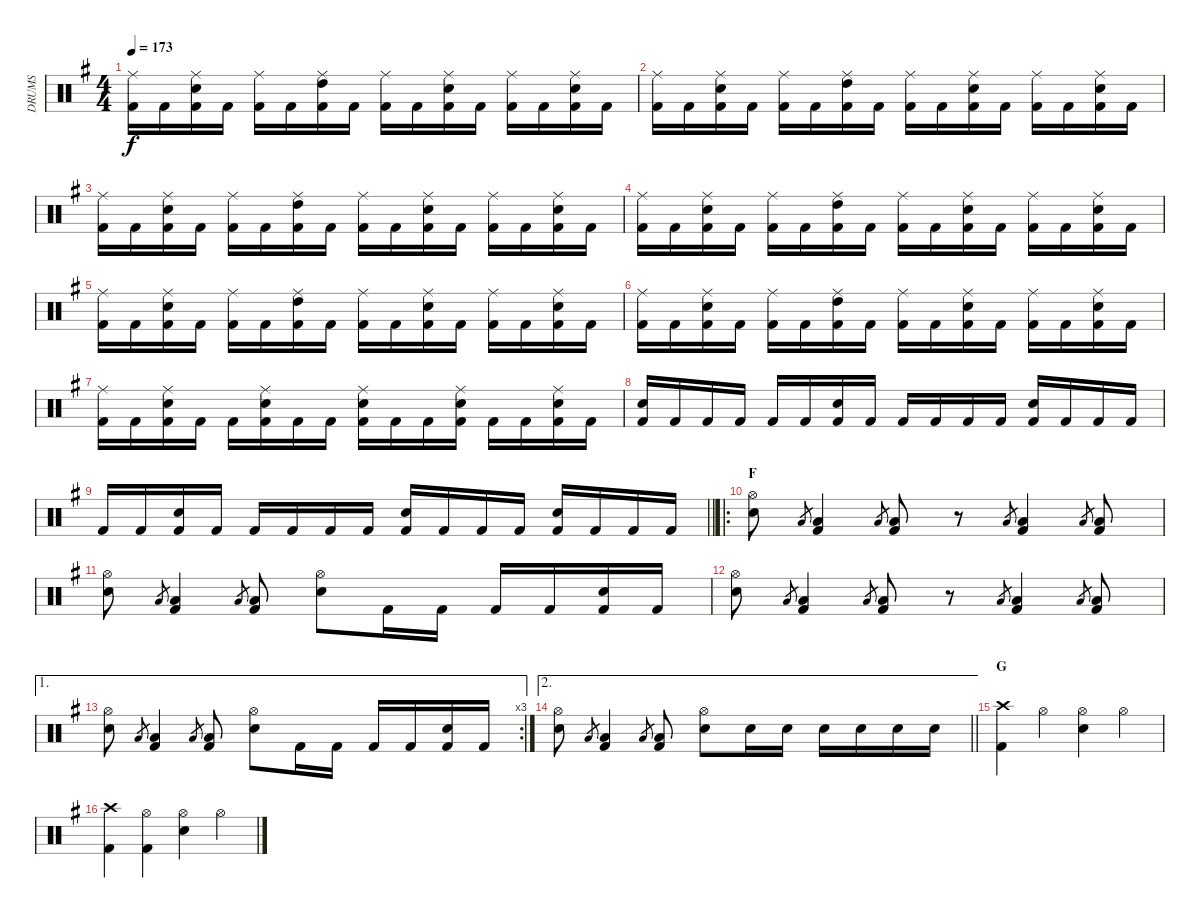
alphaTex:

\track ("DRUMS" "DRUMS") {instrument percussion}
\staff {score}
\articulation defaults
\ts (4 4)
\tempo 173
\clef neutral
\ks g
("Ride (middle)" "Kick (hit) 2").16{dy f} "Kick (hit) 2".16 ("Ride (middle)" "Kick (hit) 2" "Snare (hit) 2").16 "Kick (hit) 2".16 ("Ride (middle)" "Kick (hit) 2").16 "Kick (hit) 2".16 ("Ride (middle)" "Kick (hit) 2" "High Tom (hit)").16 "Kick (hit) 2".16 ("Ride (middle)" "Kick (hit) 2").16 "Kick (hit) 2".16 ("Ride (middle)" "Kick (hit) 2" "Snare (hit) 2").16 "Kick (hit) 2".16 ("Ride (middle)" "Kick (hit) 2").16 "Kick (hit) 2".16 ("Ride (middle)" "Kick (hit) 2" "Snare (hit) 2").16 "Kick (hit) 2".16 |
("Ride (middle)" "Kick (hit) 2").16 "Kick (hit) 2".16 ("Ride (middle)" "Kick (hit) 2" "Snare (hit) 2").16 "Kick (hit) 2".16 ("Ride (middle)" "Kick (hit) 2").16 "Kick (hit) 2".16 ("Ride (middle)" "Kick (hit) 2" "High Tom (hit)").16 "Kick (hit) 2".16 ("Ride (middle)" "Kick (hit) 2").16 "Kick (hit) 2".16 ("Ride (middle)" "Kick (hit) 2" "Snare (hit) 2").16 "Kick (hit) 2".16 ("Ride (middle)" "Kick (hit) 2").16 "Kick (hit) 2".16 ("Ride (middle)" "Kick (hit) 2" "Snare (hit) 2").16 "Kick (hit) 2".16 |
("Ride (middle)" "Kick (hit) 2").16 "Kick (hit) 2".16 ("Ride (middle)" "Kick (hit) 2" "Snare (hit) 2").16 "Kick (hit) 2".16 ("Ride (middle)" "Kick (hit) 2").16 "Kick (hit) 2".16 ("Ride (middle)" "Kick (hit) 2" "High Tom (hit)").16 "Kick (hit) 2".16 ("Ride (middle)" "Kick (hit) 2").16 "Kick (hit) 2".16 ("Ride (middle)" "Kick (hit) 2" "Snare (hit) 2").16 "Kick (hit) 2".16 ("Ride (middle)" "Kick (hit) 2").16 "Kick (hit) 2".16 ("Ride (middle)" "Kick (hit) 2" "Snare (hit) 2").16 "Kick (hit) 2".16 |
("Ride (middle)" "Kick (hit) 2").16 "Kick (hit) 2".16 ("Ride (middle)" "Kick (hit) 2" "Snare (hit) 2").16 "Kick (hit) 2".16 ("Ride (middle)" "Kick (hit) 2").16 "Kick (hit) 2".16 ("Ride (middle)" "Kick (hit) 2" "High Tom (hit)").16 "Kick (hit) 2".16 ("Ride (middle)" "Kick (hit) 2").16 "Kick (hit) 2".16 ("Ride (middle)" "Kick (hit) 2" "Snare (hit) 2").16 "Kick (hit) 2".16 ("Ride (middle)" "Kick (hit) 2").16 "Kick (hit) 2".16 ("Ride (middle)" "Kick (hit) 2" "Snare (hit) 2").16 "Kick (hit) 2".16 |
("Ride (middle)" "Kick (hit) 2").16 "Kick (hit) 2".16 ("Ride (middle)" "Kick (hit) 2" "Snare (hit) 2").16 "Kick (hit) 2".16 ("Ride (middle)" "Kick (hit) 2").16 "Kick (hit) 2".16 ("Ride (middle)" "Kick (hit) 2" "High Tom (hit)").16 "Kick (hit) 2".16 ("Ride (middle)" "Kick (hit) 2").16 "Kick (hit) 2".16 ("Ride (middle)" "Kick (hit) 2" "Snare (hit) 2").16 "Kick (hit) 2".16 ("Ride (middle)" "Kick (hit) 2").16 "Kick (hit) 2".16 ("Ride (middle)" "Kick (hit) 2" "Snare (hit) 2").16 "Kick (hit) 2".16 |
("Ride (middle)" "Kick (hit) 2").16 "Kick (hit) 2".16 ("Ride (middle)" "Kick (hit) 2" "Snare (hit) 2").16 "Kick (hit) 2".16 ("Ride (middle)" "Kick (hit) 2").16 "Kick (hit) 2".16 ("Ride (middle)" "Kick (hit) 2" "High Tom (hit)").16 "Kick (hit) 2".16 ("Ride (middle)" "Kick (hit) 2").16 "Kick (hit) 2".16 ("Ride (middle)" "Kick (hit) 2" "Snare (hit) 2").16 "Kick (hit) 2".16 ("Ride (middle)" "Kick (hit) 2").16 "Kick (hit) 2".16 ("Ride (middle)" "Kick (hit) 2" "Snare (hit) 2").16 "Kick (hit) 2".16 |
("Ride (middle)" "Kick (hit) 2").16 "Kick (hit) 2".16 ("Ride (middle)" "Kick (hit) 2" "Snare (hit) 2").16 "Kick (hit) 2".16 "Kick (hit) 2".16 ("Ride (middle)" "Kick (hit) 2" "Snare (hit) 2").16 "Kick (hit) 2".16 "Kick (hit) 2".16 ("Ride (middle)" "Kick (hit) 2" "Snare (hit) 2").16 "Kick (hit) 2".16 "Kick (hit) 2".16 ("Ride (middle)" "Kick (hit) 2" "Snare (hit) 2").16 "Kick (hit) 2".16 "Kick (hit) 2".16 ("Ride (middle)" "Kick (hit) 2" "Snare (hit) 2").16 "Kick (hit) 2".16 |
("Snare (hit) 2" "Kick (hit) 2").16 "Kick (hit) 2".16 "Kick (hit) 2".16 "Kick (hit) 2".16 "Kick (hit) 2".16 "Kick (hit) 2".16 ("Snare (hit) 2" "Kick (hit) 2").16 "Kick (hit) 2".16 "Kick (hit) 2".16 "Kick (hit) 2".16 "Kick (hit) 2".16 "Kick (hit) 2".16 ("Snare (hit) 2" "Kick (hit) 2").16 "Kick (hit) 2".16 "Kick (hit) 2".16 "Kick (hit) 2".16 |
\barLineRight lightlight "Kick (hit) 2".16 "Kick (hit) 2".16
("Snare (hit) 2" "Kick (hit) 2").16 "Kick (hit) 2".16 "Kick (hit) 2".16 "Kick (hit) 2".16 "Kick (hit) 2".16 "Kick (hit) 2".16 ("Snare (hit) 2" "Kick (hit) 2").16 "Kick (hit) 2".16 "Kick (hit) 2".16 "Kick (hit) 2".16 ("Snare (hit) 2" "Kick (hit) 2").16 "Kick (hit) 2".16 "Kick (hit) 2".16 "Kick (hit) 2".16 |
\ro
\section ("" "F")
("Hi-Hat (open)" "Snare (hit) 2").8 "Low Floor Tom (hit)".8{gr} ("Low Floor Tom (hit)" "Kick (hit) 2").4 "Low Floor Tom (hit)".8{gr} ("Low Floor Tom (hit)" "Kick (hit) 2").8 r.8 "Low Floor Tom (hit)".8{gr} ("Low Floor Tom (hit)" "Kick (hit) 2").4 "Low Floor Tom (hit)".8{gr} ("Low Floor Tom (hit)" "Kick (hit) 2").8 |
("Hi-Hat (open)" "Snare (hit) 2").8 "Low Floor Tom (hit)".8{gr} ("Low Floor Tom (hit)" "Kick (hit) 2").4 "Low Floor Tom (hit)".8{gr} ("Low Floor Tom (hit)" "Kick (hit) 2").8 ("Hi-Hat (open)" "Snare (hit) 2").8 "Kick (hit) 2".16 "Kick (hit) 2".16 "Kick (hit) 2".16 "Kick (hit) 2".16 ("Snare (hit) 2" "Kick (hit) 2").16 "Kick (hit) 2".16 |
("Hi-Hat (open)" "Snare (hit) 2").8 "Low Floor Tom (hit)".8{gr} ("Low Floor Tom (hit)" "Kick (hit) 2").4 "Low Floor Tom (hit)".8{gr} ("Low Floor Tom (hit)" "Kick (hit) 2").8 r.8 "Low Floor Tom (hit)".8{gr} ("Low Floor Tom (hit)" "Kick (hit) 2").4 "Low Floor Tom (hit)".8{gr} ("Low Floor Tom (hit)" "Kick (hit) 2").8 |
\ae 1
\rc 3
("Hi-Hat (open)" "Snare (hit) 2").8 "Low Floor Tom (hit)".8{gr} ("Low Floor Tom (hit)" "Kick (hit) 2").4 "Low Floor Tom (hit)".8{gr} ("Low Floor Tom (hit)" "Kick (hit) 2").8 ("Hi-Hat (open)" "Snare (hit) 2").8 "Kick (hit) 2".16 "Kick (hit) 2".16 "Kick (hit) 2".16 "Kick (hit) 2".16 ("Snare (hit) 2" "Kick (hit) 2").16 "Kick (hit) 2".16 |
\ae 2
\barLineRight lightlight
("Hi-Hat (open)" "Snare (hit) 2").8 "Low Floor Tom (hit)".8{gr} ("Low Floor Tom (hit)" "Kick (hit) 2").4 "Low Floor Tom (hit)".8{gr} ("Low Floor Tom (hit)" "Kick (hit) 2").8 ("Hi-Hat (open)" "Snare (hit) 2").8 "Snare (hit) 2".16 "Snare (hit) 2".16 "Snare (hit) 2".16 "Snare (hit) 2".16 "Snare (hit) 2".16 "Snare (hit) 2".16 |
\section ("" "G")
("Crash high (hit)" "Kick (hit) 2").4 "Hi-Hat (open)".4 ("Hi-Hat (open)" "Snare (hit) 2").4 "Hi-Hat (open)".4 |
("Crash high (hit)" "Kick (hit) 2").4 ("Hi-Hat (open)" "Kick (hit) 2").4 ("Hi-Hat (open)" "Snare (hit) 2").4 "Hi-Hat (open)".4
